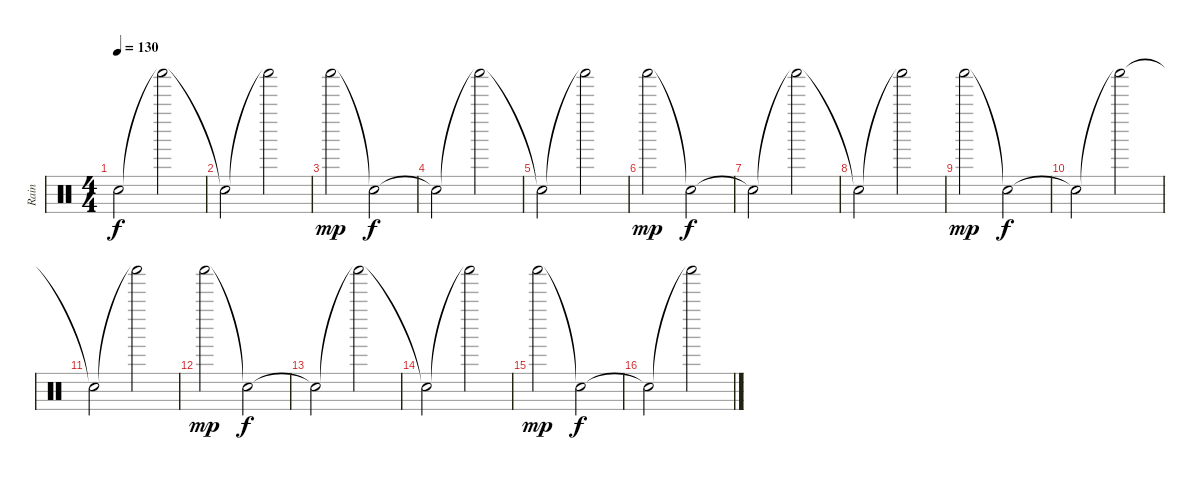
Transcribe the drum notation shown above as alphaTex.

\track ("Rain" "Rain") {instrument percussion}
\staff {score}
\articulation defaults
\ts (4 4)
\tempo 130
\clef neutral
\ks c "Snare (hit)"{t}.2{dy f} "Shaker (hit)"{t}.2
|
"Snare (hit)"{t}.2 "Shaker (hit)"{t}.2 |
"Shaker (hit)".2{dy mp} "Snare (hit)"{t}.2{dy f} |
"Snare (hit)"{t}.2 "Shaker (hit)"{t}.2 |
"Snare (hit)"{t}.2 "Shaker (hit)"{t}.2 |
"Shaker (hit)".2{dy mp} "Snare (hit)"{t}.2{dy f} |
"Snare (hit)"{t}.2 "Shaker (hit)"{t}.2 |
"Snare (hit)"{t}.2 "Shaker (hit)"{t}.2 |
"Shaker (hit)".2{dy mp} "Snare (hit)"{t}.2{dy f} |
"Snare (hit)"{t}.2 "Shaker (hit)"{t}.2 |
"Snare (hit)"{t}.2 "Shaker (hit)"{t}.2 |
"Shaker (hit)".2{dy mp} "Snare (hit)"{t}.2{dy f} |
"Snare (hit)"{t}.2 "Shaker (hit)"{t}.2 |
"Snare (hit)"{t}.2 "Shaker (hit)"{t}.2 |
"Shaker (hit)".2{dy mp} "Snare (hit)"{t}.2{dy f} |
"Snare (hit)"{t}.2 "Shaker (hit)"{t}.2
